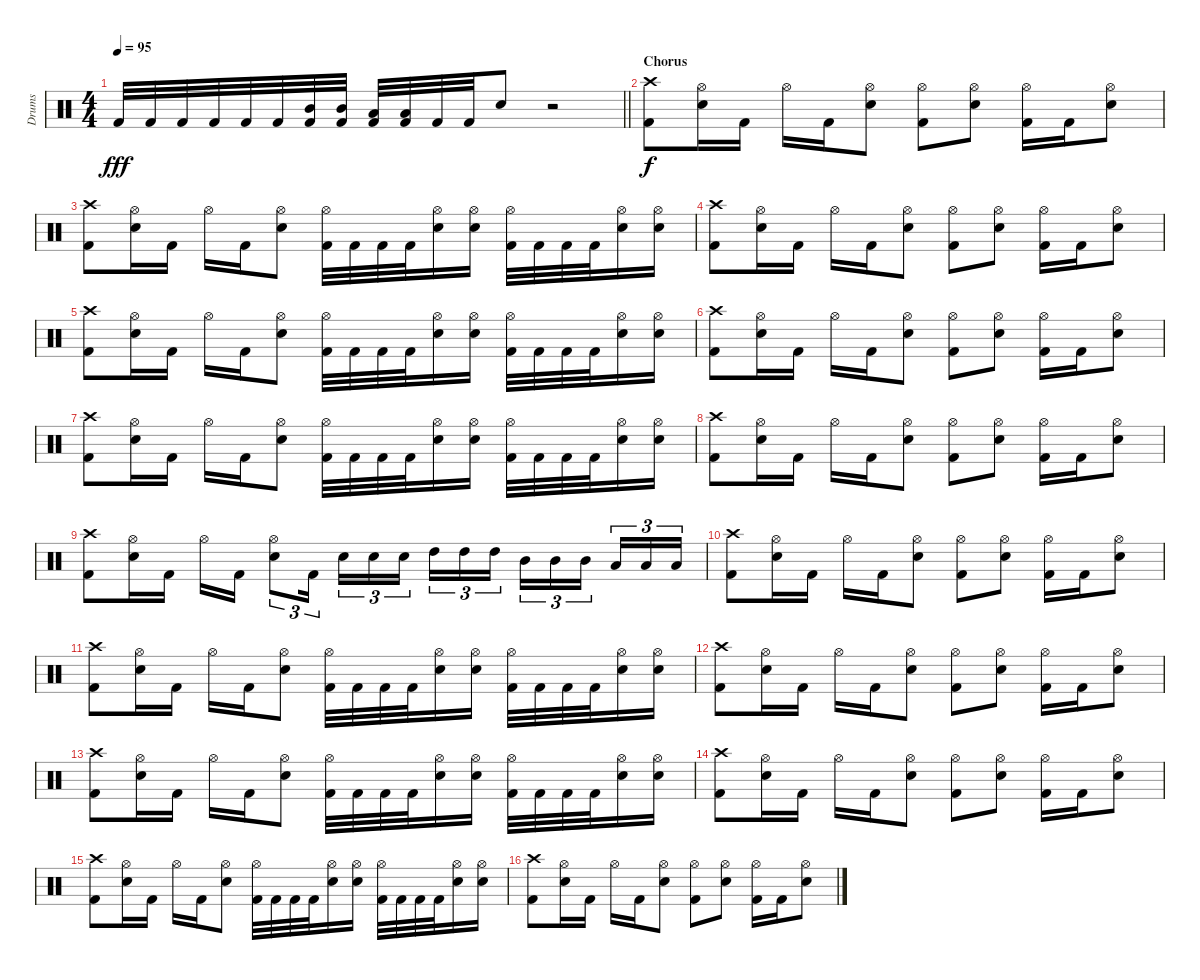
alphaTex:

\track ("Drums" "Drums") {instrument percussion}
\staff {score}
\articulation defaults
\ts (4 4)
\tempo 95
\clef neutral
\barLineRight lightlight
\ks c "Kick (hit) 2".32{dy fff} "Kick (hit) 2".32 "Kick (hit) 2".32 "Kick (hit) 2".32 "Kick (hit) 2".32 "Kick (hit) 2".32
("Mid Tom (hit)" "Kick (hit) 2").32 ("Mid Tom (hit)" "Kick (hit) 2").32 ("Low Tom (hit)" "Kick (hit) 2").32 ("Low Tom (hit)" "Kick (hit) 2").32 "Kick (hit) 2".32 "Kick (hit) 2".32 "Snare (hit) 2".8 r.2 |
\section ("" "Chorus")
("Crash high (hit)" "Kick (hit) 2").8{dy f} ("Hi-Hat (open)" "Snare (hit) 2").16 "Kick (hit) 2".16 "Hi-Hat (open)".16 "Kick (hit) 2".16 ("Hi-Hat (open)" "Snare (hit) 2").8 ("Hi-Hat (open)" "Kick (hit) 2").8 ("Hi-Hat (open)" "Snare (hit) 2").8 ("Hi-Hat (open)" "Kick (hit) 2").16 "Kick (hit) 2".16 ("Hi-Hat (open)" "Snare (hit) 2").8 |
("Crash high (hit)" "Kick (hit) 2").8 ("Hi-Hat (open)" "Snare (hit) 2").16 "Kick (hit) 2".16 "Hi-Hat (open)".16 "Kick (hit) 2".16 ("Hi-Hat (open)" "Snare (hit) 2").8 ("Hi-Hat (open)" "Kick (hit) 2").32 "Kick (hit) 2".32 "Kick (hit) 2".32 "Kick (hit) 2".32 ("Hi-Hat (open)" "Snare (hit) 2").16 ("Hi-Hat (open)" "Snare (hit) 2").16 ("Hi-Hat (open)" "Kick (hit) 2").32 "Kick (hit) 2".32 "Kick (hit) 2".32 "Kick (hit) 2".32 ("Hi-Hat (open)" "Snare (hit) 2").16 ("Hi-Hat (open)" "Snare (hit) 2").16 |
("Crash high (hit)" "Kick (hit) 2").8 ("Hi-Hat (open)" "Snare (hit) 2").16 "Kick (hit) 2".16 "Hi-Hat (open)".16 "Kick (hit) 2".16 ("Hi-Hat (open)" "Snare (hit) 2").8 ("Hi-Hat (open)" "Kick (hit) 2").8 ("Hi-Hat (open)" "Snare (hit) 2").8 ("Hi-Hat (open)" "Kick (hit) 2").16 "Kick (hit) 2".16 ("Hi-Hat (open)" "Snare (hit) 2").8 |
("Crash high (hit)" "Kick (hit) 2").8 ("Hi-Hat (open)" "Snare (hit) 2").16 "Kick (hit) 2".16 "Hi-Hat (open)".16 "Kick (hit) 2".16 ("Hi-Hat (open)" "Snare (hit) 2").8 ("Hi-Hat (open)" "Kick (hit) 2").32 "Kick (hit) 2".32 "Kick (hit) 2".32 "Kick (hit) 2".32 ("Hi-Hat (open)" "Snare (hit) 2").16 ("Hi-Hat (open)" "Snare (hit) 2").16 ("Hi-Hat (open)" "Kick (hit) 2").32 "Kick (hit) 2".32 "Kick (hit) 2".32 "Kick (hit) 2".32 ("Hi-Hat (open)" "Snare (hit) 2").16 ("Hi-Hat (open)" "Snare (hit) 2").16 |
("Crash high (hit)" "Kick (hit) 2").8 ("Hi-Hat (open)" "Snare (hit) 2").16 "Kick (hit) 2".16 "Hi-Hat (open)".16 "Kick (hit) 2".16 ("Hi-Hat (open)" "Snare (hit) 2").8 ("Hi-Hat (open)" "Kick (hit) 2").8 ("Hi-Hat (open)" "Snare (hit) 2").8 ("Hi-Hat (open)" "Kick (hit) 2").16 "Kick (hit) 2".16 ("Hi-Hat (open)" "Snare (hit) 2").8 |
("Crash high (hit)" "Kick (hit) 2").8 ("Hi-Hat (open)" "Snare (hit) 2").16 "Kick (hit) 2".16 "Hi-Hat (open)".16 "Kick (hit) 2".16 ("Hi-Hat (open)" "Snare (hit) 2").8 ("Hi-Hat (open)" "Kick (hit) 2").32 "Kick (hit) 2".32 "Kick (hit) 2".32 "Kick (hit) 2".32 ("Hi-Hat (open)" "Snare (hit) 2").16 ("Hi-Hat (open)" "Snare (hit) 2").16 ("Hi-Hat (open)" "Kick (hit) 2").32 "Kick (hit) 2".32 "Kick (hit) 2".32 "Kick (hit) 2".32 ("Hi-Hat (open)" "Snare (hit) 2").16 ("Hi-Hat (open)" "Snare (hit) 2").16 |
("Crash high (hit)" "Kick (hit) 2").8 ("Hi-Hat (open)" "Snare (hit) 2").16 "Kick (hit) 2".16 "Hi-Hat (open)".16 "Kick (hit) 2".16 ("Hi-Hat (open)" "Snare (hit) 2").8 ("Hi-Hat (open)" "Kick (hit) 2").8 ("Hi-Hat (open)" "Snare (hit) 2").8 ("Hi-Hat (open)" "Kick (hit) 2").16 "Kick (hit) 2".16 ("Hi-Hat (open)" "Snare (hit) 2").8 |
("Crash high (hit)" "Kick (hit) 2").8 ("Hi-Hat (open)" "Snare (hit) 2").16 "Kick (hit) 2".16 "Hi-Hat (open)".16 "Kick (hit) 2".16 ("Hi-Hat (open)" "Snare (hit) 2").8{tu (3 2)} "Kick (hit) 2".16{tu (3 2)} "Snare (hit) 2".16{tu (3 2)} "Snare (hit) 2".16{tu (3 2)} "Snare (hit) 2".16{tu (3 2) beam splitsecondary} "High Tom (hit)".16{tu (3 2)} "High Tom (hit)".16{tu (3 2)} "High Tom (hit)".16{tu (3 2)} "Mid Tom (hit)".16{tu (3 2)} "Mid Tom (hit)".16{tu (3 2)} "Mid Tom (hit)".16{tu (3 2) beam splitsecondary} "Low Tom (hit)".16{tu (3 2)} "Low Tom (hit)".16{tu (3 2)} "Low Tom (hit)".16{tu (3 2)} |
("Crash high (hit)" "Kick (hit) 2").8 ("Hi-Hat (open)" "Snare (hit) 2").16 "Kick (hit) 2".16 "Hi-Hat (open)".16 "Kick (hit) 2".16 ("Hi-Hat (open)" "Snare (hit) 2").8 ("Hi-Hat (open)" "Kick (hit) 2").8 ("Hi-Hat (open)" "Snare (hit) 2").8 ("Hi-Hat (open)" "Kick (hit) 2").16 "Kick (hit) 2".16 ("Hi-Hat (open)" "Snare (hit) 2").8 |
("Crash high (hit)" "Kick (hit) 2").8 ("Hi-Hat (open)" "Snare (hit) 2").16 "Kick (hit) 2".16 "Hi-Hat (open)".16 "Kick (hit) 2".16 ("Hi-Hat (open)" "Snare (hit) 2").8 ("Hi-Hat (open)" "Kick (hit) 2").32 "Kick (hit) 2".32 "Kick (hit) 2".32 "Kick (hit) 2".32 ("Hi-Hat (open)" "Snare (hit) 2").16 ("Hi-Hat (open)" "Snare (hit) 2").16 ("Hi-Hat (open)" "Kick (hit) 2").32 "Kick (hit) 2".32 "Kick (hit) 2".32 "Kick (hit) 2".32 ("Hi-Hat (open)" "Snare (hit) 2").16 ("Hi-Hat (open)" "Snare (hit) 2").16 |
("Crash high (hit)" "Kick (hit) 2").8 ("Hi-Hat (open)" "Snare (hit) 2").16 "Kick (hit) 2".16 "Hi-Hat (open)".16 "Kick (hit) 2".16 ("Hi-Hat (open)" "Snare (hit) 2").8 ("Hi-Hat (open)" "Kick (hit) 2").8 ("Hi-Hat (open)" "Snare (hit) 2").8 ("Hi-Hat (open)" "Kick (hit) 2").16 "Kick (hit) 2".16 ("Hi-Hat (open)" "Snare (hit) 2").8 |
("Crash high (hit)" "Kick (hit) 2").8 ("Hi-Hat (open)" "Snare (hit) 2").16 "Kick (hit) 2".16 "Hi-Hat (open)".16 "Kick (hit) 2".16 ("Hi-Hat (open)" "Snare (hit) 2").8 ("Hi-Hat (open)" "Kick (hit) 2").32 "Kick (hit) 2".32 "Kick (hit) 2".32 "Kick (hit) 2".32 ("Hi-Hat (open)" "Snare (hit) 2").16 ("Hi-Hat (open)" "Snare (hit) 2").16 ("Hi-Hat (open)" "Kick (hit) 2").32 "Kick (hit) 2".32 "Kick (hit) 2".32 "Kick (hit) 2".32 ("Hi-Hat (open)" "Snare (hit) 2").16 ("Hi-Hat (open)" "Snare (hit) 2").16 |
("Crash high (hit)" "Kick (hit) 2").8 ("Hi-Hat (open)" "Snare (hit) 2").16 "Kick (hit) 2".16 "Hi-Hat (open)".16 "Kick (hit) 2".16 ("Hi-Hat (open)" "Snare (hit) 2").8 ("Hi-Hat (open)" "Kick (hit) 2").8 ("Hi-Hat (open)" "Snare (hit) 2").8 ("Hi-Hat (open)" "Kick (hit) 2").16 "Kick (hit) 2".16 ("Hi-Hat (open)" "Snare (hit) 2").8 |
("Crash high (hit)" "Kick (hit) 2").8 ("Hi-Hat (open)" "Snare (hit) 2").16 "Kick (hit) 2".16 "Hi-Hat (open)".16 "Kick (hit) 2".16 ("Hi-Hat (open)" "Snare (hit) 2").8 ("Hi-Hat (open)" "Kick (hit) 2").32 "Kick (hit) 2".32 "Kick (hit) 2".32 "Kick (hit) 2".32 ("Hi-Hat (open)" "Snare (hit) 2").16 ("Hi-Hat (open)" "Snare (hit) 2").16 ("Hi-Hat (open)" "Kick (hit) 2").32 "Kick (hit) 2".32 "Kick (hit) 2".32 "Kick (hit) 2".32 ("Hi-Hat (open)" "Snare (hit) 2").16 ("Hi-Hat (open)" "Snare (hit) 2").16 |
("Crash high (hit)" "Kick (hit) 2").8 ("Hi-Hat (open)" "Snare (hit) 2").16 "Kick (hit) 2".16 "Hi-Hat (open)".16 "Kick (hit) 2".16 ("Hi-Hat (open)" "Snare (hit) 2").8 ("Hi-Hat (open)" "Kick (hit) 2").8 ("Hi-Hat (open)" "Snare (hit) 2").8 ("Hi-Hat (open)" "Kick (hit) 2").16 "Kick (hit) 2".16 ("Hi-Hat (open)" "Snare (hit) 2").8
